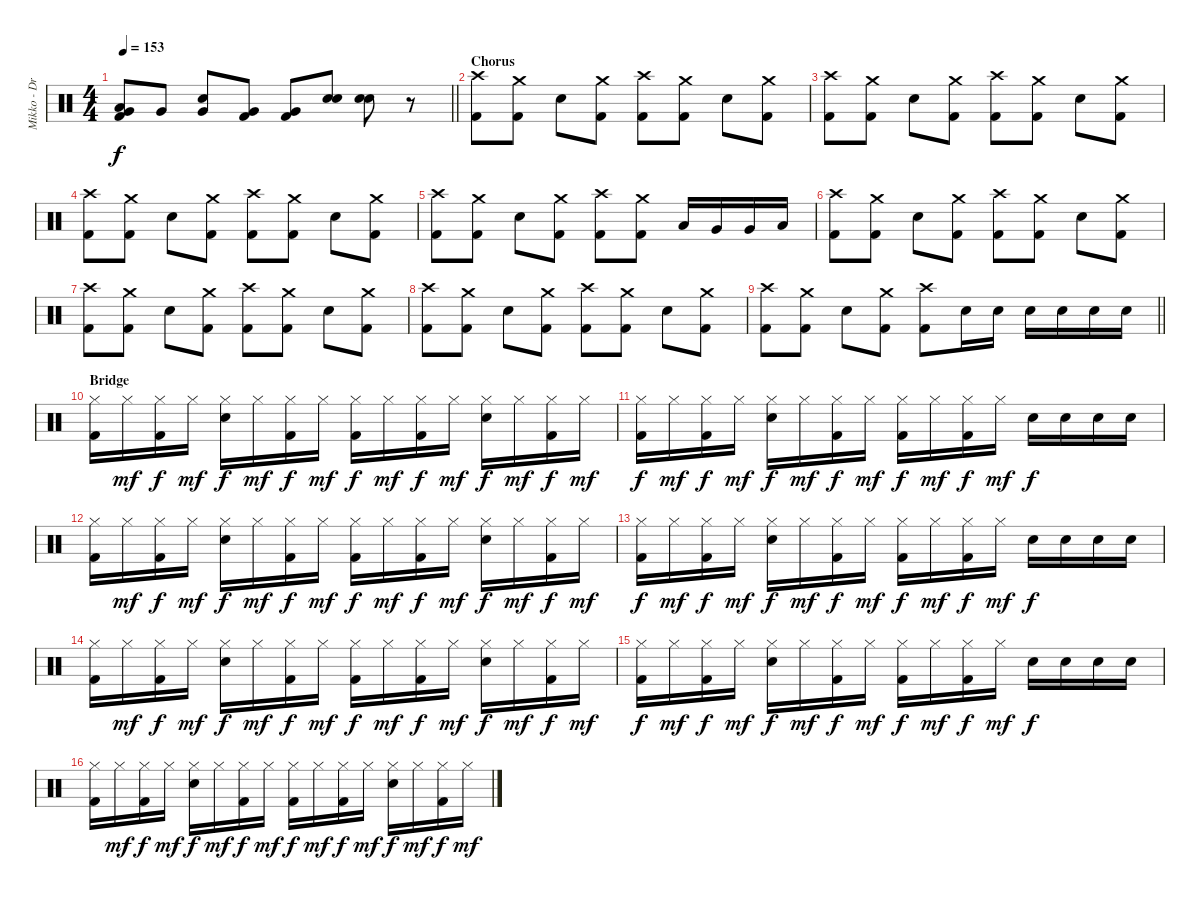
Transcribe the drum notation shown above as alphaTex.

\track ("Mikko - Drums" "Mikko - Dr") {instrument percussion}
\staff {score}
\articulation defaults
\ts (4 4)
\tempo 153
\clef neutral
\barLineRight lightlight
\ks c
("Low Tom (hit)" "Very Low Tom (hit)" "Kick (hit) 2").8{dy f} "Very Low Tom (hit)".8 ("Snare (hit) 2" "Very Low Tom (hit)").8 ("Very Low Tom (hit)" "Kick (hit) 2").8 ("Very Low Tom (hit)" "Kick (hit) 2").8 ("Hand Clap (hit)" "Snare (hit) 2").8 ("Hand Clap (hit)" "Snare (hit) 2").8 r.8 |
\section ("" "Chorus")
("Crash high (hit)" "Kick (hit) 2").8 ("Crash medium (hit)" "Kick (hit) 2").8 "Snare (hit) 2".8 ("Crash medium (hit)" "Kick (hit) 2").8 ("Crash high (hit)" "Kick (hit) 2").8 ("Crash medium (hit)" "Kick (hit) 2").8 "Snare (hit) 2".8 ("Crash medium (hit)" "Kick (hit) 2").8 |
("Crash high (hit)" "Kick (hit) 2").8 ("Crash medium (hit)" "Kick (hit) 2").8 "Snare (hit) 2".8 ("Crash medium (hit)" "Kick (hit) 2").8 ("Crash high (hit)" "Kick (hit) 2").8 ("Crash medium (hit)" "Kick (hit) 2").8 "Snare (hit) 2".8 ("Crash medium (hit)" "Kick (hit) 2").8 |
("Crash high (hit)" "Kick (hit) 2").8 ("Crash medium (hit)" "Kick (hit) 2").8 "Snare (hit) 2".8 ("Crash medium (hit)" "Kick (hit) 2").8 ("Crash high (hit)" "Kick (hit) 2").8 ("Crash medium (hit)" "Kick (hit) 2").8 "Snare (hit) 2".8 ("Crash medium (hit)" "Kick (hit) 2").8 |
("Crash high (hit)" "Kick (hit) 2").8 ("Crash medium (hit)" "Kick (hit) 2").8 "Snare (hit) 2".8 ("Crash medium (hit)" "Kick (hit) 2").8 ("Crash high (hit)" "Kick (hit) 2").8 ("Crash medium (hit)" "Kick (hit) 2").8 "Low Tom (hit)".16 "Very Low Tom (hit)".16 "Very Low Tom (hit)".16 "Low Tom (hit)".16 |
("Crash high (hit)" "Kick (hit) 2").8 ("Crash medium (hit)" "Kick (hit) 2").8 "Snare (hit) 2".8 ("Crash medium (hit)" "Kick (hit) 2").8 ("Crash high (hit)" "Kick (hit) 2").8 ("Crash medium (hit)" "Kick (hit) 2").8 "Snare (hit) 2".8 ("Crash medium (hit)" "Kick (hit) 2").8 |
("Crash high (hit)" "Kick (hit) 2").8 ("Crash medium (hit)" "Kick (hit) 2").8 "Snare (hit) 2".8 ("Crash medium (hit)" "Kick (hit) 2").8 ("Crash high (hit)" "Kick (hit) 2").8 ("Crash medium (hit)" "Kick (hit) 2").8 "Snare (hit) 2".8 ("Crash medium (hit)" "Kick (hit) 2").8 |
("Crash high (hit)" "Kick (hit) 2").8 ("Crash medium (hit)" "Kick (hit) 2").8 "Snare (hit) 2".8 ("Crash medium (hit)" "Kick (hit) 2").8 ("Crash high (hit)" "Kick (hit) 2").8 ("Crash medium (hit)" "Kick (hit) 2").8 "Snare (hit) 2".8 ("Crash medium (hit)" "Kick (hit) 2").8 |
\barLineRight lightlight
("Crash high (hit)" "Kick (hit) 2").8 ("Crash medium (hit)" "Kick (hit) 2").8 "Snare (hit) 2".8 ("Crash medium (hit)" "Kick (hit) 2").8 ("Crash high (hit)" "Kick (hit) 2").8 "Snare (hit) 2".16 "Snare (hit) 2".16 "Snare (hit) 2".16 "Snare (hit) 2".16 "Snare (hit) 2".16 "Snare (hit) 2".16 |
\section ("" "Bridge")
("Hi-Hat (closed)" "Kick (hit) 2").16 "Hi-Hat (closed)".16{dy mf} ("Hi-Hat (closed)" "Kick (hit) 2").16{dy f} "Hi-Hat (closed)".16{dy mf} ("Hi-Hat (closed)" "Snare (hit) 2").16{dy f} "Hi-Hat (closed)".16{dy mf} ("Hi-Hat (closed)" "Kick (hit) 2").16{dy f} "Hi-Hat (closed)".16{dy mf} ("Hi-Hat (closed)" "Kick (hit) 2").16{dy f} "Hi-Hat (closed)".16{dy mf} ("Hi-Hat (closed)" "Kick (hit) 2").16{dy f} "Hi-Hat (closed)".16{dy mf} ("Hi-Hat (closed)" "Snare (hit) 2").16{dy f} "Hi-Hat (closed)".16{dy mf} ("Hi-Hat (closed)" "Kick (hit) 2").16{dy f} "Hi-Hat (closed)".16{dy mf} |
("Hi-Hat (closed)" "Kick (hit) 2").16{dy f} "Hi-Hat (closed)".16{dy mf} ("Hi-Hat (closed)" "Kick (hit) 2").16{dy f} "Hi-Hat (closed)".16{dy mf} ("Hi-Hat (closed)" "Snare (hit) 2").16{dy f} "Hi-Hat (closed)".16{dy mf} ("Hi-Hat (closed)" "Kick (hit) 2").16{dy f} "Hi-Hat (closed)".16{dy mf} ("Hi-Hat (closed)" "Kick (hit) 2").16{dy f} "Hi-Hat (closed)".16{dy mf} ("Hi-Hat (closed)" "Kick (hit) 2").16{dy f} "Hi-Hat (closed)".16{dy mf} "Snare (hit) 2".16{dy f} "Snare (hit) 2".16 "Snare (hit) 2".16 "Snare (hit) 2".16 |
("Hi-Hat (closed)" "Kick (hit) 2").16 "Hi-Hat (closed)".16{dy mf} ("Hi-Hat (closed)" "Kick (hit) 2").16{dy f} "Hi-Hat (closed)".16{dy mf} ("Hi-Hat (closed)" "Snare (hit) 2").16{dy f} "Hi-Hat (closed)".16{dy mf} ("Hi-Hat (closed)" "Kick (hit) 2").16{dy f} "Hi-Hat (closed)".16{dy mf} ("Hi-Hat (closed)" "Kick (hit) 2").16{dy f} "Hi-Hat (closed)".16{dy mf} ("Hi-Hat (closed)" "Kick (hit) 2").16{dy f} "Hi-Hat (closed)".16{dy mf} ("Hi-Hat (closed)" "Snare (hit) 2").16{dy f} "Hi-Hat (closed)".16{dy mf} ("Hi-Hat (closed)" "Kick (hit) 2").16{dy f} "Hi-Hat (closed)".16{dy mf} |
("Hi-Hat (closed)" "Kick (hit) 2").16{dy f} "Hi-Hat (closed)".16{dy mf} ("Hi-Hat (closed)" "Kick (hit) 2").16{dy f} "Hi-Hat (closed)".16{dy mf} ("Hi-Hat (closed)" "Snare (hit) 2").16{dy f} "Hi-Hat (closed)".16{dy mf} ("Hi-Hat (closed)" "Kick (hit) 2").16{dy f} "Hi-Hat (closed)".16{dy mf} ("Hi-Hat (closed)" "Kick (hit) 2").16{dy f} "Hi-Hat (closed)".16{dy mf} ("Hi-Hat (closed)" "Kick (hit) 2").16{dy f} "Hi-Hat (closed)".16{dy mf} "Snare (hit) 2".16{dy f} "Snare (hit) 2".16 "Snare (hit) 2".16 "Snare (hit) 2".16 |
("Hi-Hat (closed)" "Kick (hit) 2").16 "Hi-Hat (closed)".16{dy mf} ("Hi-Hat (closed)" "Kick (hit) 2").16{dy f} "Hi-Hat (closed)".16{dy mf} ("Hi-Hat (closed)" "Snare (hit) 2").16{dy f} "Hi-Hat (closed)".16{dy mf} ("Hi-Hat (closed)" "Kick (hit) 2").16{dy f} "Hi-Hat (closed)".16{dy mf} ("Hi-Hat (closed)" "Kick (hit) 2").16{dy f} "Hi-Hat (closed)".16{dy mf} ("Hi-Hat (closed)" "Kick (hit) 2").16{dy f} "Hi-Hat (closed)".16{dy mf} ("Hi-Hat (closed)" "Snare (hit) 2").16{dy f} "Hi-Hat (closed)".16{dy mf} ("Hi-Hat (closed)" "Kick (hit) 2").16{dy f} "Hi-Hat (closed)".16{dy mf} |
("Hi-Hat (closed)" "Kick (hit) 2").16{dy f} "Hi-Hat (closed)".16{dy mf} ("Hi-Hat (closed)" "Kick (hit) 2").16{dy f} "Hi-Hat (closed)".16{dy mf} ("Hi-Hat (closed)" "Snare (hit) 2").16{dy f} "Hi-Hat (closed)".16{dy mf} ("Hi-Hat (closed)" "Kick (hit) 2").16{dy f} "Hi-Hat (closed)".16{dy mf} ("Hi-Hat (closed)" "Kick (hit) 2").16{dy f} "Hi-Hat (closed)".16{dy mf} ("Hi-Hat (closed)" "Kick (hit) 2").16{dy f} "Hi-Hat (closed)".16{dy mf} "Snare (hit) 2".16{dy f} "Snare (hit) 2".16 "Snare (hit) 2".16 "Snare (hit) 2".16 |
("Hi-Hat (closed)" "Kick (hit) 2").16 "Hi-Hat (closed)".16{dy mf} ("Hi-Hat (closed)" "Kick (hit) 2").16{dy f} "Hi-Hat (closed)".16{dy mf} ("Hi-Hat (closed)" "Snare (hit) 2").16{dy f} "Hi-Hat (closed)".16{dy mf} ("Hi-Hat (closed)" "Kick (hit) 2").16{dy f} "Hi-Hat (closed)".16{dy mf} ("Hi-Hat (closed)" "Kick (hit) 2").16{dy f} "Hi-Hat (closed)".16{dy mf} ("Hi-Hat (closed)" "Kick (hit) 2").16{dy f} "Hi-Hat (closed)".16{dy mf} ("Hi-Hat (closed)" "Snare (hit) 2").16{dy f} "Hi-Hat (closed)".16{dy mf} ("Hi-Hat (closed)" "Kick (hit) 2").16{dy f} "Hi-Hat (closed)".16{dy mf}
